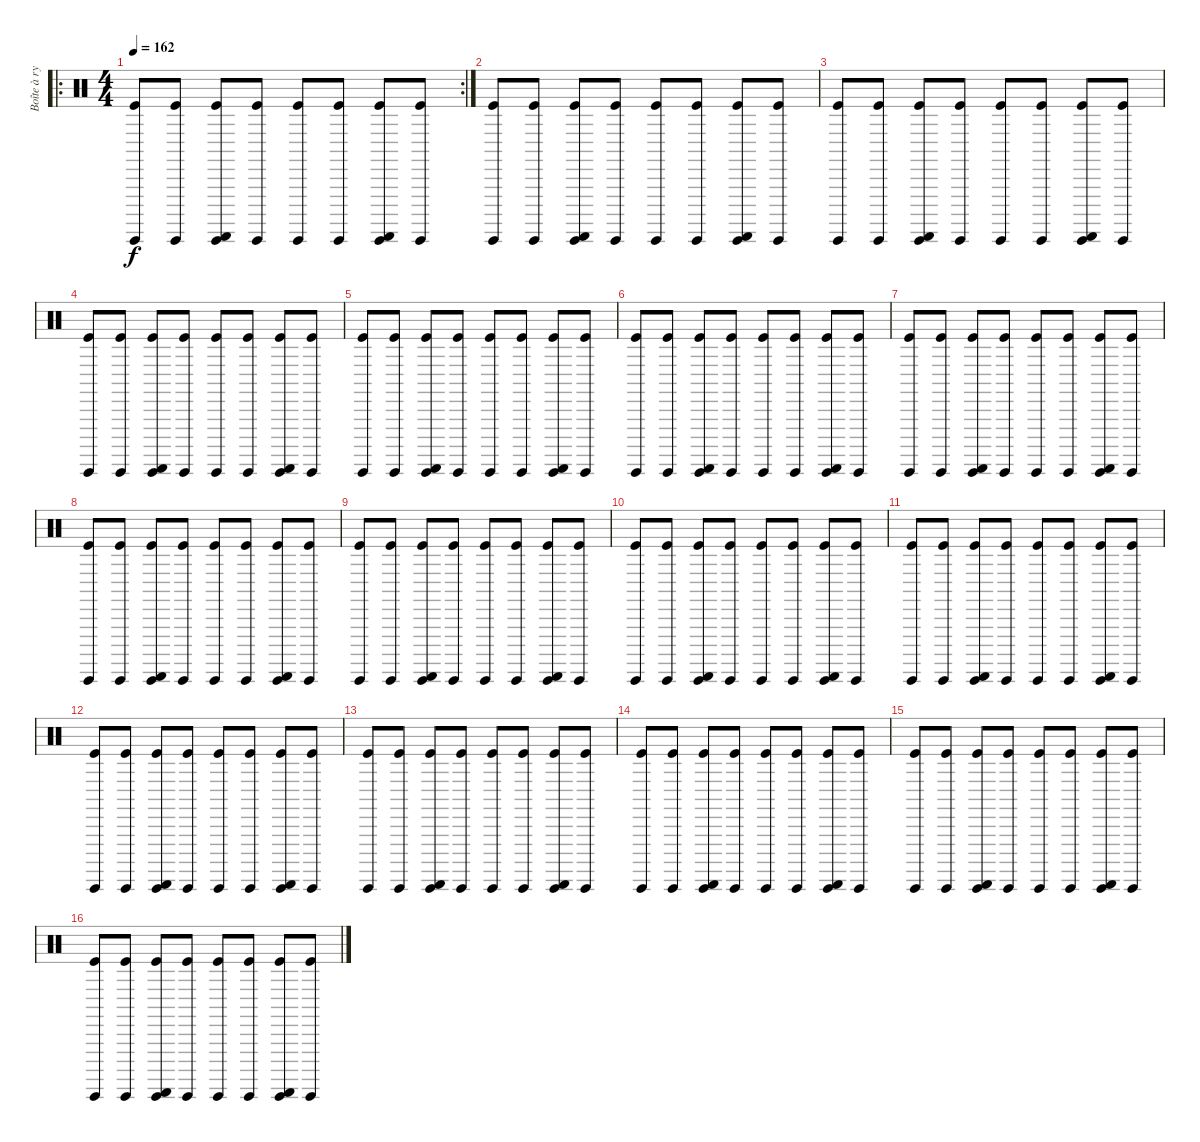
\track ("Boîte à rythme" "Boîte à ry") {instrument percussion}
\staff {score}
\articulation defaults
\ro
\rc 2
\ts (4 4)
\tempo 162
\clef neutral
\ks c
("Kick (hit)" "Guiro (hit)").8{dy f} ("Kick (hit)" "Guiro (hit)").8 ("Kick (hit)" "Guiro (hit)" "Guiro (scrap-return)").8 ("Kick (hit)" "Guiro (hit)").8 ("Kick (hit)" "Guiro (hit)").8 ("Kick (hit)" "Guiro (hit)").8 ("Kick (hit)" "Guiro (hit)" "Guiro (scrap-return)").8 ("Kick (hit)" "Guiro (hit)").8 |
("Kick (hit)" "Guiro (hit)").8 ("Kick (hit)" "Guiro (hit)").8 ("Kick (hit)" "Guiro (hit)" "Guiro (scrap-return)").8 ("Kick (hit)" "Guiro (hit)").8 ("Kick (hit)" "Guiro (hit)").8 ("Kick (hit)" "Guiro (hit)").8 ("Kick (hit)" "Guiro (hit)" "Guiro (scrap-return)").8 ("Kick (hit)" "Guiro (hit)").8 |
("Kick (hit)" "Guiro (hit)").8 ("Kick (hit)" "Guiro (hit)").8 ("Kick (hit)" "Guiro (hit)" "Guiro (scrap-return)").8 ("Kick (hit)" "Guiro (hit)").8 ("Kick (hit)" "Guiro (hit)").8 ("Kick (hit)" "Guiro (hit)").8 ("Kick (hit)" "Guiro (hit)" "Guiro (scrap-return)").8 ("Kick (hit)" "Guiro (hit)").8 |
("Kick (hit)" "Guiro (hit)").8 ("Kick (hit)" "Guiro (hit)").8 ("Kick (hit)" "Guiro (hit)" "Guiro (scrap-return)").8 ("Kick (hit)" "Guiro (hit)").8 ("Kick (hit)" "Guiro (hit)").8 ("Kick (hit)" "Guiro (hit)").8 ("Kick (hit)" "Guiro (hit)" "Guiro (scrap-return)").8 ("Kick (hit)" "Guiro (hit)").8 |
("Kick (hit)" "Guiro (hit)").8 ("Kick (hit)" "Guiro (hit)").8 ("Kick (hit)" "Guiro (hit)" "Guiro (scrap-return)").8 ("Kick (hit)" "Guiro (hit)").8 ("Kick (hit)" "Guiro (hit)").8 ("Kick (hit)" "Guiro (hit)").8 ("Kick (hit)" "Guiro (hit)" "Guiro (scrap-return)").8 ("Kick (hit)" "Guiro (hit)").8 |
("Kick (hit)" "Guiro (hit)").8 ("Kick (hit)" "Guiro (hit)").8 ("Kick (hit)" "Guiro (hit)" "Guiro (scrap-return)").8 ("Kick (hit)" "Guiro (hit)").8 ("Kick (hit)" "Guiro (hit)").8 ("Kick (hit)" "Guiro (hit)").8 ("Kick (hit)" "Guiro (hit)" "Guiro (scrap-return)").8 ("Kick (hit)" "Guiro (hit)").8 |
("Kick (hit)" "Guiro (hit)").8 ("Kick (hit)" "Guiro (hit)").8 ("Kick (hit)" "Guiro (hit)" "Guiro (scrap-return)").8 ("Kick (hit)" "Guiro (hit)").8 ("Kick (hit)" "Guiro (hit)").8 ("Kick (hit)" "Guiro (hit)").8 ("Kick (hit)" "Guiro (hit)" "Guiro (scrap-return)").8 ("Kick (hit)" "Guiro (hit)").8 |
("Kick (hit)" "Guiro (hit)").8 ("Kick (hit)" "Guiro (hit)").8 ("Kick (hit)" "Guiro (hit)" "Guiro (scrap-return)").8 ("Kick (hit)" "Guiro (hit)").8 ("Kick (hit)" "Guiro (hit)").8 ("Kick (hit)" "Guiro (hit)").8 ("Kick (hit)" "Guiro (hit)" "Guiro (scrap-return)").8 ("Kick (hit)" "Guiro (hit)").8 |
("Kick (hit)" "Guiro (hit)").8 ("Kick (hit)" "Guiro (hit)").8 ("Kick (hit)" "Guiro (hit)" "Guiro (scrap-return)").8 ("Kick (hit)" "Guiro (hit)").8 ("Kick (hit)" "Guiro (hit)").8 ("Kick (hit)" "Guiro (hit)").8 ("Kick (hit)" "Guiro (hit)" "Guiro (scrap-return)").8 ("Kick (hit)" "Guiro (hit)").8 |
("Kick (hit)" "Guiro (hit)").8 ("Kick (hit)" "Guiro (hit)").8 ("Kick (hit)" "Guiro (hit)" "Guiro (scrap-return)").8 ("Kick (hit)" "Guiro (hit)").8 ("Kick (hit)" "Guiro (hit)").8 ("Kick (hit)" "Guiro (hit)").8 ("Kick (hit)" "Guiro (hit)" "Guiro (scrap-return)").8 ("Kick (hit)" "Guiro (hit)").8 |
("Kick (hit)" "Guiro (hit)").8 ("Kick (hit)" "Guiro (hit)").8 ("Kick (hit)" "Guiro (hit)" "Guiro (scrap-return)").8 ("Kick (hit)" "Guiro (hit)").8 ("Kick (hit)" "Guiro (hit)").8 ("Kick (hit)" "Guiro (hit)").8 ("Kick (hit)" "Guiro (hit)" "Guiro (scrap-return)").8 ("Kick (hit)" "Guiro (hit)").8 |
("Kick (hit)" "Guiro (hit)").8 ("Kick (hit)" "Guiro (hit)").8 ("Kick (hit)" "Guiro (hit)" "Guiro (scrap-return)").8 ("Kick (hit)" "Guiro (hit)").8 ("Kick (hit)" "Guiro (hit)").8 ("Kick (hit)" "Guiro (hit)").8 ("Kick (hit)" "Guiro (hit)" "Guiro (scrap-return)").8 ("Kick (hit)" "Guiro (hit)").8 |
("Kick (hit)" "Guiro (hit)").8 ("Kick (hit)" "Guiro (hit)").8 ("Kick (hit)" "Guiro (hit)" "Guiro (scrap-return)").8 ("Kick (hit)" "Guiro (hit)").8 ("Kick (hit)" "Guiro (hit)").8 ("Kick (hit)" "Guiro (hit)").8 ("Kick (hit)" "Guiro (hit)" "Guiro (scrap-return)").8 ("Kick (hit)" "Guiro (hit)").8 |
("Kick (hit)" "Guiro (hit)").8 ("Kick (hit)" "Guiro (hit)").8 ("Kick (hit)" "Guiro (hit)" "Guiro (scrap-return)").8 ("Kick (hit)" "Guiro (hit)").8 ("Kick (hit)" "Guiro (hit)").8 ("Kick (hit)" "Guiro (hit)").8 ("Kick (hit)" "Guiro (hit)" "Guiro (scrap-return)").8 ("Kick (hit)" "Guiro (hit)").8 |
("Kick (hit)" "Guiro (hit)").8 ("Kick (hit)" "Guiro (hit)").8 ("Kick (hit)" "Guiro (hit)" "Guiro (scrap-return)").8 ("Kick (hit)" "Guiro (hit)").8 ("Kick (hit)" "Guiro (hit)").8 ("Kick (hit)" "Guiro (hit)").8 ("Kick (hit)" "Guiro (hit)" "Guiro (scrap-return)").8 ("Kick (hit)" "Guiro (hit)").8 |
("Kick (hit)" "Guiro (hit)").8 ("Kick (hit)" "Guiro (hit)").8 ("Kick (hit)" "Guiro (hit)" "Guiro (scrap-return)").8 ("Kick (hit)" "Guiro (hit)").8 ("Kick (hit)" "Guiro (hit)").8 ("Kick (hit)" "Guiro (hit)").8 ("Kick (hit)" "Guiro (hit)" "Guiro (scrap-return)").8 ("Kick (hit)" "Guiro (hit)").8
